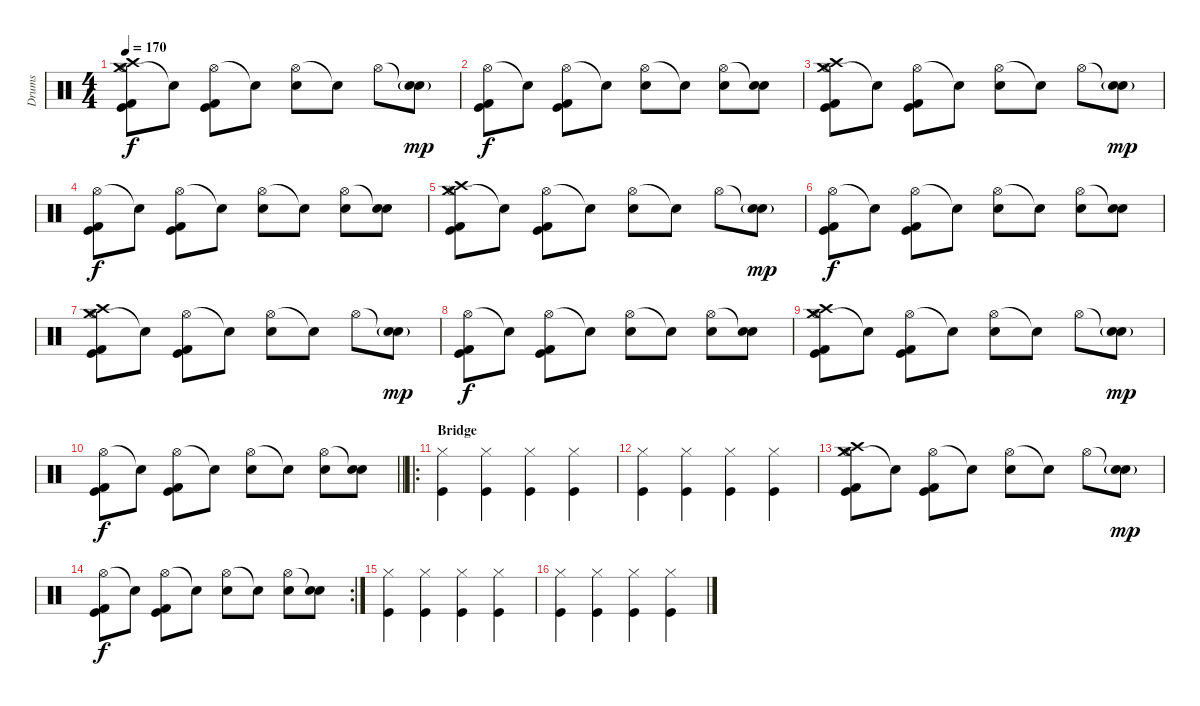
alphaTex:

\track ("Drums" "Drums") {instrument percussion}
\staff {score}
\articulation defaults
\ts (4 4)
\tempo 170
\clef neutral
\ks c
("Hi-Hat (open)" "Crash high (hit)" "Crash medium (hit)" "Kick (hit)" "Kick (hit) 2").8{dy f} "Snare (hit)"{t}.8 ("Hi-Hat (open)" "Kick (hit)" "Kick (hit) 2").8 "Snare (hit)"{t}.8 ("Hi-Hat (open)" "Electric Snare (hit)").8 "Snare (hit)"{t}.8 "Hi-Hat (open)".8 ("Snare (hit)"{t} "Electric Snare (hit)"{g}).8{dy mp} |
("Hi-Hat (open)" "Kick (hit)" "Kick (hit) 2").8{dy f} "Snare (hit)"{t}.8 ("Hi-Hat (open)" "Kick (hit)" "Kick (hit) 2").8 "Snare (hit)"{t}.8 ("Hi-Hat (open)" "Electric Snare (hit)").8 "Snare (hit)"{t}.8 ("Hi-Hat (open)" "Electric Snare (hit)").8 ("Snare (hit)"{t} "Electric Snare (hit)").8 |
("Hi-Hat (open)" "Crash high (hit)" "Crash medium (hit)" "Kick (hit)" "Kick (hit) 2").8 "Snare (hit)"{t}.8 ("Hi-Hat (open)" "Kick (hit)" "Kick (hit) 2").8 "Snare (hit)"{t}.8 ("Hi-Hat (open)" "Electric Snare (hit)").8 "Snare (hit)"{t}.8 "Hi-Hat (open)".8 ("Snare (hit)"{t} "Electric Snare (hit)"{g}).8{dy mp} |
("Hi-Hat (open)" "Kick (hit)" "Kick (hit) 2").8{dy f} "Snare (hit)"{t}.8 ("Hi-Hat (open)" "Kick (hit)" "Kick (hit) 2").8 "Snare (hit)"{t}.8 ("Hi-Hat (open)" "Electric Snare (hit)").8 "Snare (hit)"{t}.8 ("Hi-Hat (open)" "Electric Snare (hit)").8 ("Snare (hit)"{t} "Electric Snare (hit)").8 |
("Hi-Hat (open)" "Crash high (hit)" "Crash medium (hit)" "Kick (hit)" "Kick (hit) 2").8 "Snare (hit)"{t}.8 ("Hi-Hat (open)" "Kick (hit)" "Kick (hit) 2").8 "Snare (hit)"{t}.8 ("Hi-Hat (open)" "Electric Snare (hit)").8 "Snare (hit)"{t}.8 "Hi-Hat (open)".8 ("Snare (hit)"{t} "Electric Snare (hit)"{g}).8{dy mp} |
("Hi-Hat (open)" "Kick (hit)" "Kick (hit) 2").8{dy f} "Snare (hit)"{t}.8 ("Hi-Hat (open)" "Kick (hit)" "Kick (hit) 2").8 "Snare (hit)"{t}.8 ("Hi-Hat (open)" "Electric Snare (hit)").8 "Snare (hit)"{t}.8 ("Hi-Hat (open)" "Electric Snare (hit)").8 ("Snare (hit)"{t} "Electric Snare (hit)").8 |
("Hi-Hat (open)" "Crash high (hit)" "Crash medium (hit)" "Kick (hit)" "Kick (hit) 2").8 "Snare (hit)"{t}.8 ("Hi-Hat (open)" "Kick (hit)" "Kick (hit) 2").8 "Snare (hit)"{t}.8 ("Hi-Hat (open)" "Electric Snare (hit)").8 "Snare (hit)"{t}.8 "Hi-Hat (open)".8 ("Snare (hit)"{t} "Electric Snare (hit)"{g}).8{dy mp} |
("Hi-Hat (open)" "Kick (hit)" "Kick (hit) 2").8{dy f} "Snare (hit)"{t}.8 ("Hi-Hat (open)" "Kick (hit)" "Kick (hit) 2").8 "Snare (hit)"{t}.8 ("Hi-Hat (open)" "Electric Snare (hit)").8 "Snare (hit)"{t}.8 ("Hi-Hat (open)" "Electric Snare (hit)").8 ("Snare (hit)"{t} "Electric Snare (hit)").8 |
("Hi-Hat (open)" "Crash high (hit)" "Crash medium (hit)" "Kick (hit)" "Kick (hit) 2").8 "Snare (hit)"{t}.8 ("Hi-Hat (open)" "Kick (hit)" "Kick (hit) 2").8 "Snare (hit)"{t}.8 ("Hi-Hat (open)" "Electric Snare (hit)").8 "Snare (hit)"{t}.8 "Hi-Hat (open)".8 ("Snare (hit)"{t} "Electric Snare (hit)"{g}).8{dy mp} |
\barLineRight lightlight
("Hi-Hat (open)" "Kick (hit)" "Kick (hit) 2").8{dy f} "Snare (hit)"{t}.8 ("Hi-Hat (open)" "Kick (hit)" "Kick (hit) 2").8 "Snare (hit)"{t}.8 ("Hi-Hat (open)" "Electric Snare (hit)").8 "Snare (hit)"{t}.8 ("Hi-Hat (open)" "Electric Snare (hit)").8 ("Snare (hit)"{t} "Electric Snare (hit)").8 |
\ro
\section ("" "Bridge")
("Kick (hit)" "Hi-Hat (closed)").4 ("Kick (hit)" "Hi-Hat (closed)").4 ("Kick (hit)" "Hi-Hat (closed)").4 ("Kick (hit)" "Hi-Hat (closed)").4 |
("Kick (hit)" "Hi-Hat (closed)").4 ("Kick (hit)" "Hi-Hat (closed)").4 ("Kick (hit)" "Hi-Hat (closed)").4 ("Kick (hit)" "Hi-Hat (closed)").4 |
("Hi-Hat (open)" "Crash high (hit)" "Crash medium (hit)" "Kick (hit)" "Kick (hit) 2").8 "Snare (hit)"{t}.8 ("Hi-Hat (open)" "Kick (hit)" "Kick (hit) 2").8 "Snare (hit)"{t}.8 ("Hi-Hat (open)" "Electric Snare (hit)").8 "Snare (hit)"{t}.8 "Hi-Hat (open)".8 ("Snare (hit)"{t} "Electric Snare (hit)"{g}).8{dy mp} |
\rc 2
("Hi-Hat (open)" "Kick (hit)" "Kick (hit) 2").8{dy f} "Snare (hit)"{t}.8 ("Hi-Hat (open)" "Kick (hit)" "Kick (hit) 2").8 "Snare (hit)"{t}.8 ("Hi-Hat (open)" "Electric Snare (hit)").8 "Snare (hit)"{t}.8 ("Hi-Hat (open)" "Electric Snare (hit)").8 ("Snare (hit)"{t} "Electric Snare (hit)").8 |
("Kick (hit)" "Hi-Hat (closed)").4 ("Kick (hit)" "Hi-Hat (closed)").4 ("Kick (hit)" "Hi-Hat (closed)").4 ("Kick (hit)" "Hi-Hat (closed)").4 |
("Kick (hit)" "Hi-Hat (closed)").4 ("Kick (hit)" "Hi-Hat (closed)").4 ("Kick (hit)" "Hi-Hat (closed)").4 ("Kick (hit)" "Hi-Hat (closed)").4
